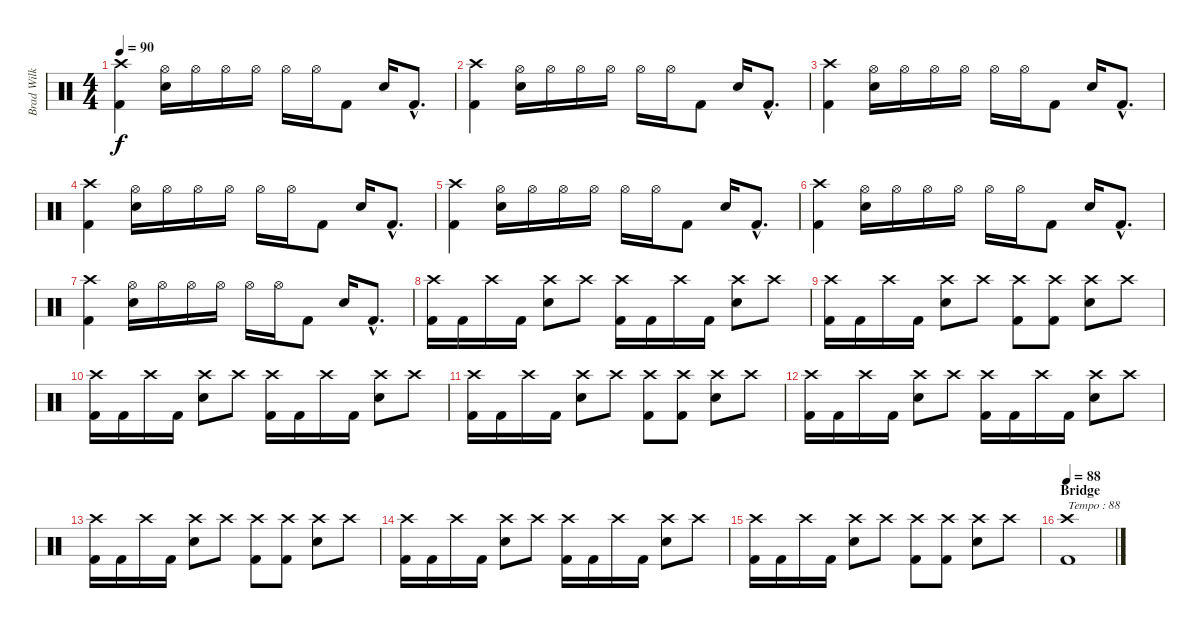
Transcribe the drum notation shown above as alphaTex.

\track ("Brad Wilk / Drums" "Brad Wilk ") {instrument percussion}
\staff {score}
\articulation defaults
\ts (4 4)
\tempo 90
\clef neutral
\ks c
("Crash high (hit)" "Kick (hit) 2").4{dy f} ("Hi-Hat (open)" "Electric Snare (hit)").16 "Hi-Hat (open)".16 "Hi-Hat (open)".16 "Hi-Hat (open)".16 "Hi-Hat (open)".16 "Hi-Hat (open)".16 "Kick (hit) 2".8 "Electric Snare (hit)".16 "Kick (hit) 2"{hac}.8{d} |
("Crash high (hit)" "Kick (hit) 2").4 ("Hi-Hat (open)" "Electric Snare (hit)").16 "Hi-Hat (open)".16 "Hi-Hat (open)".16 "Hi-Hat (open)".16 "Hi-Hat (open)".16 "Hi-Hat (open)".16 "Kick (hit) 2".8 "Electric Snare (hit)".16 "Kick (hit) 2"{hac}.8{d} |
("Crash high (hit)" "Kick (hit) 2").4 ("Hi-Hat (open)" "Electric Snare (hit)").16 "Hi-Hat (open)".16 "Hi-Hat (open)".16 "Hi-Hat (open)".16 "Hi-Hat (open)".16 "Hi-Hat (open)".16 "Kick (hit) 2".8 "Electric Snare (hit)".16 "Kick (hit) 2"{hac}.8{d} |
("Crash high (hit)" "Kick (hit) 2").4 ("Hi-Hat (open)" "Electric Snare (hit)").16 "Hi-Hat (open)".16 "Hi-Hat (open)".16 "Hi-Hat (open)".16 "Hi-Hat (open)".16 "Hi-Hat (open)".16 "Kick (hit) 2".8 "Electric Snare (hit)".16 "Kick (hit) 2"{hac}.8{d} |
("Crash high (hit)" "Kick (hit) 2").4 ("Hi-Hat (open)" "Electric Snare (hit)").16 "Hi-Hat (open)".16 "Hi-Hat (open)".16 "Hi-Hat (open)".16 "Hi-Hat (open)".16 "Hi-Hat (open)".16 "Kick (hit) 2".8 "Electric Snare (hit)".16 "Kick (hit) 2"{hac}.8{d} |
("Crash high (hit)" "Kick (hit) 2").4 ("Hi-Hat (open)" "Electric Snare (hit)").16 "Hi-Hat (open)".16 "Hi-Hat (open)".16 "Hi-Hat (open)".16 "Hi-Hat (open)".16 "Hi-Hat (open)".16 "Kick (hit) 2".8 "Electric Snare (hit)".16 "Kick (hit) 2"{hac}.8{d} |
("Crash high (hit)" "Kick (hit) 2").4 ("Hi-Hat (open)" "Electric Snare (hit)").16 "Hi-Hat (open)".16 "Hi-Hat (open)".16 "Hi-Hat (open)".16 "Hi-Hat (open)".16 "Hi-Hat (open)".16 "Kick (hit) 2".8 "Electric Snare (hit)".16 "Kick (hit) 2"{hac}.8{d} |
("Crash high (hit)" "Kick (hit) 2").16 "Kick (hit) 2".16 "Crash high (hit)".16 "Kick (hit) 2".16 ("Crash high (hit)" "Electric Snare (hit)").8 "Crash high (hit)".8 ("Crash high (hit)" "Kick (hit) 2").16 "Kick (hit) 2".16 "Crash high (hit)".16 "Kick (hit) 2".16 ("Crash high (hit)" "Electric Snare (hit)").8 "Crash high (hit)".8 |
("Crash high (hit)" "Kick (hit) 2").16 "Kick (hit) 2".16 "Crash high (hit)".16 "Kick (hit) 2".16 ("Crash high (hit)" "Electric Snare (hit)").8 "Crash high (hit)".8 ("Crash high (hit)" "Kick (hit) 2").8 ("Crash high (hit)" "Kick (hit) 2").8 ("Crash high (hit)" "Electric Snare (hit)").8 "Crash high (hit)".8 |
("Crash high (hit)" "Kick (hit) 2").16 "Kick (hit) 2".16 "Crash high (hit)".16 "Kick (hit) 2".16 ("Crash high (hit)" "Electric Snare (hit)").8 "Crash high (hit)".8 ("Crash high (hit)" "Kick (hit) 2").16 "Kick (hit) 2".16 "Crash high (hit)".16 "Kick (hit) 2".16 ("Crash high (hit)" "Electric Snare (hit)").8 "Crash high (hit)".8 |
("Crash high (hit)" "Kick (hit) 2").16 "Kick (hit) 2".16 "Crash high (hit)".16 "Kick (hit) 2".16 ("Crash high (hit)" "Electric Snare (hit)").8 "Crash high (hit)".8 ("Crash high (hit)" "Kick (hit) 2").8 ("Crash high (hit)" "Kick (hit) 2").8 ("Crash high (hit)" "Electric Snare (hit)").8 "Crash high (hit)".8 |
("Crash high (hit)" "Kick (hit) 2").16 "Kick (hit) 2".16 "Crash high (hit)".16 "Kick (hit) 2".16 ("Crash high (hit)" "Electric Snare (hit)").8 "Crash high (hit)".8 ("Crash high (hit)" "Kick (hit) 2").16 "Kick (hit) 2".16 "Crash high (hit)".16 "Kick (hit) 2".16 ("Crash high (hit)" "Electric Snare (hit)").8 "Crash high (hit)".8 |
("Crash high (hit)" "Kick (hit) 2").16 "Kick (hit) 2".16 "Crash high (hit)".16 "Kick (hit) 2".16 ("Crash high (hit)" "Electric Snare (hit)").8 "Crash high (hit)".8 ("Crash high (hit)" "Kick (hit) 2").8 ("Crash high (hit)" "Kick (hit) 2").8 ("Crash high (hit)" "Electric Snare (hit)").8 "Crash high (hit)".8 |
("Crash high (hit)" "Kick (hit) 2").16 "Kick (hit) 2".16 "Crash high (hit)".16 "Kick (hit) 2".16 ("Crash high (hit)" "Electric Snare (hit)").8 "Crash high (hit)".8 ("Crash high (hit)" "Kick (hit) 2").16 "Kick (hit) 2".16 "Crash high (hit)".16 "Kick (hit) 2".16 ("Crash high (hit)" "Electric Snare (hit)").8 "Crash high (hit)".8 |
("Crash high (hit)" "Kick (hit) 2").16 "Kick (hit) 2".16 "Crash high (hit)".16 "Kick (hit) 2".16 ("Crash high (hit)" "Electric Snare (hit)").8 "Crash high (hit)".8 ("Crash high (hit)" "Kick (hit) 2").8 ("Crash high (hit)" "Kick (hit) 2").8 ("Crash high (hit)" "Electric Snare (hit)").8 "Crash high (hit)".8 |
\section ("" "Bridge")
\tempo 88
("Crash high (hit)" "Kick (hit) 2").1{txt "Tempo : 88"}
